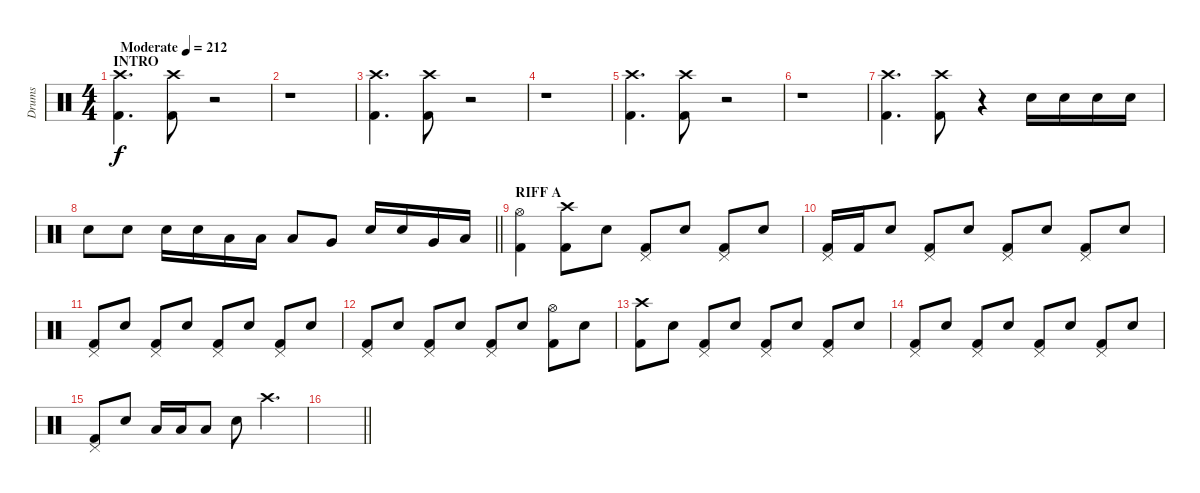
\track ("Drums" "Drums") {instrument percussion}
\staff {score}
\articulation defaults
\ts (4 4)
\section ("" "INTRO")
\tempo (212 "Moderate")
\clef neutral
\ks c
("Crash high (hit)" "Kick (hit) 2").4{d dy f} ("Crash high (hit)" "Kick (hit) 2").8 r.2 |
r.1 |
("Crash high (hit)" "Kick (hit) 2").4{d} ("Crash high (hit)" "Kick (hit) 2").8 r.2 |
r.1 |
("Crash high (hit)" "Kick (hit) 2").4{d} ("Crash high (hit)" "Kick (hit) 2").8 r.2 |
r.1 |
("Crash high (hit)" "Kick (hit) 2").4{d} ("Crash high (hit)" "Kick (hit) 2").8 r.4 "Snare (hit) 2".16 "Snare (hit) 2".16 "Snare (hit) 2".16 "Snare (hit) 2".16 |
\barLineRight lightlight "Snare (hit) 2".8 "Snare (hit) 2".8 "Snare (hit) 2".16 "Snare (hit) 2".16 "Low Tom (hit)".16 "Low Tom (hit)".16 "Low Tom (hit)".8 "Very Low Tom (hit)".8 "Snare (hit) 2".16 "Snare (hit) 2".16 "Very Low Tom (hit)".16 "Low Floor Tom (hit)".16
|
\section ("" "RIFF A")
("Hi-Hat (open)" "Kick (hit) 2").4 ("Crash high (hit)" "Kick (hit) 2").8 "Snare (hit) 2".8 ("Pedal Hi-Hat (hit)" "Kick (hit) 2").8 "Snare (hit) 2".8 ("Pedal Hi-Hat (hit)" "Kick (hit) 2").8 "Snare (hit) 2".8 |
("Pedal Hi-Hat (hit)" "Kick (hit) 2").16 "Kick (hit) 2".16 "Snare (hit) 2".8 ("Pedal Hi-Hat (hit)" "Kick (hit) 2").8 "Snare (hit) 2".8 ("Pedal Hi-Hat (hit)" "Kick (hit) 2").8 "Snare (hit) 2".8 ("Pedal Hi-Hat (hit)" "Kick (hit) 2").8 "Snare (hit) 2".8 |
("Pedal Hi-Hat (hit)" "Kick (hit) 2").8 "Snare (hit) 2".8 ("Pedal Hi-Hat (hit)" "Kick (hit) 2").8 "Snare (hit) 2".8 ("Pedal Hi-Hat (hit)" "Kick (hit) 2").8 "Snare (hit) 2".8 ("Pedal Hi-Hat (hit)" "Kick (hit) 2").8 "Snare (hit) 2".8 |
("Pedal Hi-Hat (hit)" "Kick (hit) 2").8 "Snare (hit) 2".8 ("Pedal Hi-Hat (hit)" "Kick (hit) 2").8 "Snare (hit) 2".8 ("Pedal Hi-Hat (hit)" "Kick (hit) 2").8 "Snare (hit) 2".8 ("Hi-Hat (open)" "Kick (hit) 2").8 "Snare (hit) 2".8 |
("Crash high (hit)" "Kick (hit) 2").8 "Snare (hit) 2".8 ("Pedal Hi-Hat (hit)" "Kick (hit) 2").8 "Snare (hit) 2".8 ("Pedal Hi-Hat (hit)" "Kick (hit) 2").8 "Snare (hit) 2".8 ("Pedal Hi-Hat (hit)" "Kick (hit) 2").8 "Snare (hit) 2".8 |
("Pedal Hi-Hat (hit)" "Kick (hit) 2").8 "Snare (hit) 2".8 ("Pedal Hi-Hat (hit)" "Kick (hit) 2").8 "Snare (hit) 2".8 ("Pedal Hi-Hat (hit)" "Kick (hit) 2").8 "Snare (hit) 2".8 ("Pedal Hi-Hat (hit)" "Kick (hit) 2").8 "Snare (hit) 2".8 |
("Pedal Hi-Hat (hit)" "Kick (hit) 2").8 "Snare (hit) 2".8 "Low Floor Tom (hit)".16 "Low Floor Tom (hit)".16 "Low Floor Tom (hit)".8 "Snare (hit) 2".8 "Crash high (hit)".4{d} |
\barLineRight lightlight
